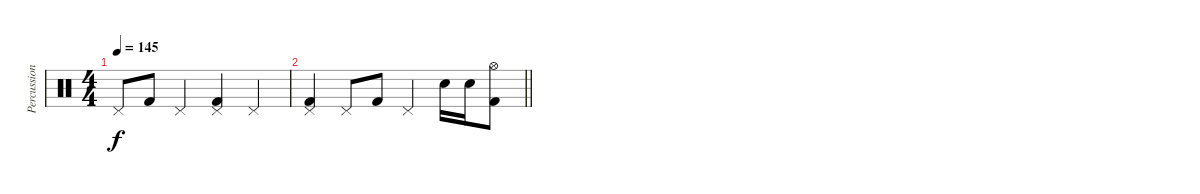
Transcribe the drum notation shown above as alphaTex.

\track ("Percussion" "Percussion") {instrument percussion}
\staff {score}
\articulation defaults
\ts (4 4)
\tempo 145
\clef neutral
\ks c "Pedal Hi-Hat (hit)".8{dy f} "Kick (hit) 2".8 "Pedal Hi-Hat (hit)".4
("Pedal Hi-Hat (hit)" "Kick (hit) 2").4 "Pedal Hi-Hat (hit)".4 |
\barLineRight lightlight
("Pedal Hi-Hat (hit)" "Kick (hit) 2").4 "Pedal Hi-Hat (hit)".8 "Kick (hit) 2".8 "Pedal Hi-Hat (hit)".4 "Snare (hit) 2".16 "Snare (hit) 2".16 ("Hi-Hat (open)" "Kick (hit) 2").8
